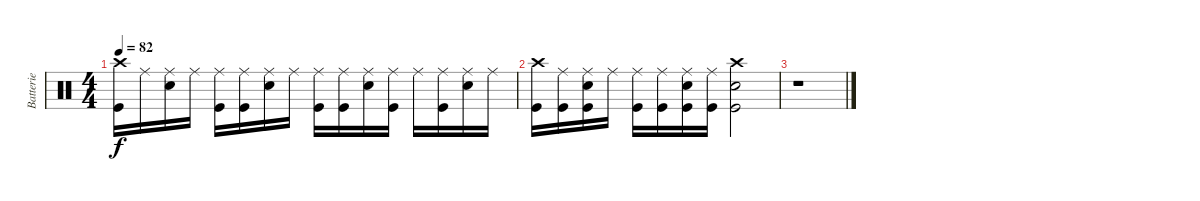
\track ("Batterie" "Batterie") {instrument percussion}
\staff {score}
\articulation defaults
\ts (4 4)
\tempo 82
\clef neutral
\ks c
("Crash high (hit)" "Kick (hit)").16{dy f} "Ride (middle)".16 ("Ride (middle)" "Snare (hit) 2").16 "Ride (middle)".16 ("Ride (middle)" "Kick (hit)").16 ("Ride (middle)" "Kick (hit)").16 ("Ride (middle)" "Snare (hit) 2").16 "Ride (middle)".16 ("Ride (middle)" "Kick (hit)").16 ("Ride (middle)" "Kick (hit)").16 ("Ride (middle)" "Snare (hit) 2").16 ("Ride (middle)" "Kick (hit)").16 "Ride (middle)".16 ("Ride (middle)" "Kick (hit)").16 ("Ride (middle)" "Snare (hit) 2").16 "Ride (middle)".16 |
("Crash high (hit)" "Kick (hit)").16 ("Ride (middle)" "Kick (hit)").16 ("Ride (middle)" "Snare (hit) 2" "Kick (hit)").16 "Ride (middle)".16 ("Ride (middle)" "Kick (hit)").16 ("Ride (middle)" "Kick (hit)").16 ("Ride (middle)" "Snare (hit) 2" "Kick (hit)").16 ("Ride (middle)" "Kick (hit)").16 ("Crash high (hit)" "Snare (hit) 2" "Kick (hit)").2 |
r.1
